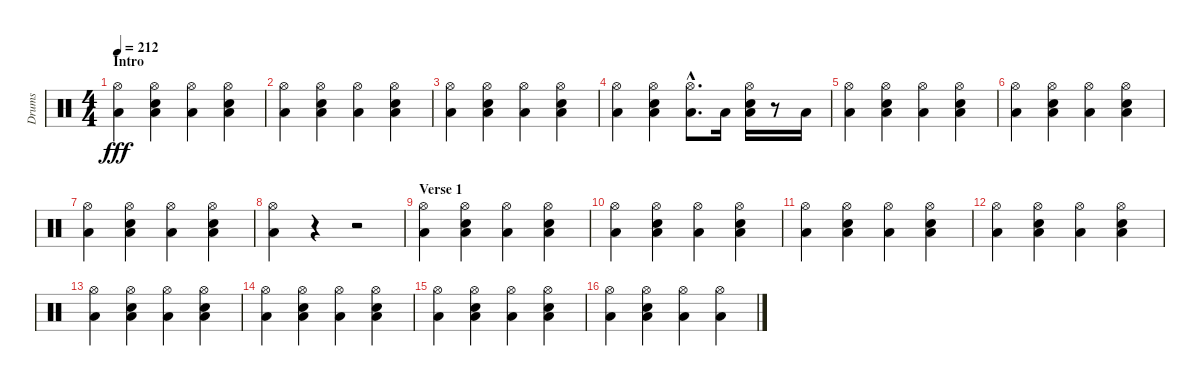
\track ("Drums" "Drums") {instrument percussion}
\staff {score}
\articulation defaults
\ts (4 4)
\section ("" "Intro")
\tempo 212
\clef neutral
\ks c
("Low Floor Tom (hit)" "Hi-Hat (open)").4{dy fff} ("Low Floor Tom (hit)" "Hi-Hat (open)" "Electric Snare (hit)").4 ("Low Floor Tom (hit)" "Hi-Hat (open)").4 ("Low Floor Tom (hit)" "Hi-Hat (open)" "Electric Snare (hit)").4 |
("Low Floor Tom (hit)" "Hi-Hat (open)").4 ("Low Floor Tom (hit)" "Hi-Hat (open)" "Electric Snare (hit)").4 ("Low Floor Tom (hit)" "Hi-Hat (open)").4 ("Low Floor Tom (hit)" "Hi-Hat (open)" "Electric Snare (hit)").4 |
("Low Floor Tom (hit)" "Hi-Hat (open)").4 ("Low Floor Tom (hit)" "Hi-Hat (open)" "Electric Snare (hit)").4 ("Low Floor Tom (hit)" "Hi-Hat (open)").4 ("Low Floor Tom (hit)" "Hi-Hat (open)" "Electric Snare (hit)").4 |
("Low Floor Tom (hit)" "Hi-Hat (open)").4 ("Low Floor Tom (hit)" "Hi-Hat (open)" "Electric Snare (hit)").4 ("Low Floor Tom (hit)"{hac} "Hi-Hat (open)"{hac}).8{d} "Low Floor Tom (hit)".16 ("Low Floor Tom (hit)" "Hi-Hat (open)" "Electric Snare (hit)").16 r.8 "Low Floor Tom (hit)".16 |
("Low Floor Tom (hit)" "Hi-Hat (open)").4 ("Low Floor Tom (hit)" "Hi-Hat (open)" "Electric Snare (hit)").4 ("Low Floor Tom (hit)" "Hi-Hat (open)").4 ("Low Floor Tom (hit)" "Hi-Hat (open)" "Electric Snare (hit)").4 |
("Low Floor Tom (hit)" "Hi-Hat (open)").4 ("Low Floor Tom (hit)" "Hi-Hat (open)" "Electric Snare (hit)").4 ("Low Floor Tom (hit)" "Hi-Hat (open)").4 ("Low Floor Tom (hit)" "Hi-Hat (open)" "Electric Snare (hit)").4 |
("Low Floor Tom (hit)" "Hi-Hat (open)").4 ("Low Floor Tom (hit)" "Hi-Hat (open)" "Electric Snare (hit)").4 ("Low Floor Tom (hit)" "Hi-Hat (open)").4 ("Low Floor Tom (hit)" "Hi-Hat (open)" "Electric Snare (hit)").4 |
("Low Floor Tom (hit)" "Hi-Hat (open)").4 r.4 r.2 |
\section ("" "Verse 1")
("Low Floor Tom (hit)" "Hi-Hat (open)").4 ("Low Floor Tom (hit)" "Hi-Hat (open)" "Electric Snare (hit)").4 ("Low Floor Tom (hit)" "Hi-Hat (open)").4 ("Low Floor Tom (hit)" "Hi-Hat (open)" "Electric Snare (hit)").4 |
("Low Floor Tom (hit)" "Hi-Hat (open)").4 ("Low Floor Tom (hit)" "Hi-Hat (open)" "Electric Snare (hit)").4 ("Low Floor Tom (hit)" "Hi-Hat (open)").4 ("Low Floor Tom (hit)" "Hi-Hat (open)" "Electric Snare (hit)").4 |
("Low Floor Tom (hit)" "Hi-Hat (open)").4 ("Low Floor Tom (hit)" "Hi-Hat (open)" "Electric Snare (hit)").4 ("Low Floor Tom (hit)" "Hi-Hat (open)").4 ("Low Floor Tom (hit)" "Hi-Hat (open)" "Electric Snare (hit)").4 |
("Low Floor Tom (hit)" "Hi-Hat (open)").4 ("Low Floor Tom (hit)" "Hi-Hat (open)" "Electric Snare (hit)").4 ("Low Floor Tom (hit)" "Hi-Hat (open)").4 ("Low Floor Tom (hit)" "Hi-Hat (open)" "Electric Snare (hit)").4 |
("Low Floor Tom (hit)" "Hi-Hat (open)").4 ("Low Floor Tom (hit)" "Hi-Hat (open)" "Electric Snare (hit)").4 ("Low Floor Tom (hit)" "Hi-Hat (open)").4 ("Low Floor Tom (hit)" "Hi-Hat (open)" "Electric Snare (hit)").4 |
("Low Floor Tom (hit)" "Hi-Hat (open)").4 ("Low Floor Tom (hit)" "Hi-Hat (open)" "Electric Snare (hit)").4 ("Low Floor Tom (hit)" "Hi-Hat (open)").4 ("Low Floor Tom (hit)" "Hi-Hat (open)" "Electric Snare (hit)").4 |
("Low Floor Tom (hit)" "Hi-Hat (open)").4 ("Low Floor Tom (hit)" "Hi-Hat (open)" "Electric Snare (hit)").4 ("Low Floor Tom (hit)" "Hi-Hat (open)").4 ("Low Floor Tom (hit)" "Hi-Hat (open)" "Electric Snare (hit)").4 |
("Low Floor Tom (hit)" "Hi-Hat (open)").4 ("Low Floor Tom (hit)" "Hi-Hat (open)" "Electric Snare (hit)").4 ("Low Floor Tom (hit)" "Hi-Hat (open)").4 ("Low Floor Tom (hit)" "Hi-Hat (open)").4
